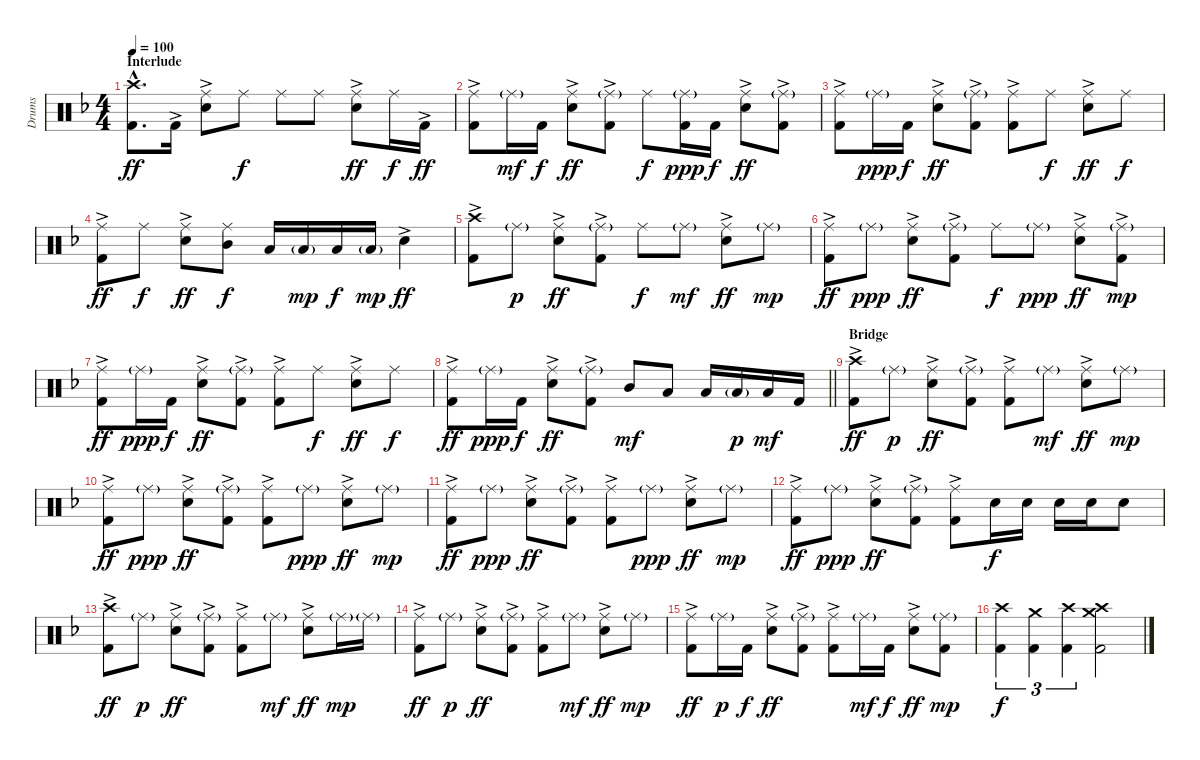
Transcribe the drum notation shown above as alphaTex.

\track ("Drums" "Drums") {instrument percussion}
\staff {score}
\articulation defaults
\ts (4 4)
\section ("" "Interlude")
\tempo 100
\clef neutral
\ks f
("Crash high (hit)"{hac} "Kick (hit) 2"{hac}).8{d dy ff} "Kick (hit) 2"{ac}.16 ("Ride (middle)" "Snare (hit) 2"{ac}).8 "Ride (middle)".8{dy f} "Ride (middle)".8 "Ride (middle)".8 ("Ride (middle)" "Snare (hit) 2"{ac}).8{dy ff} "Ride (middle)".16{dy f} "Kick (hit) 2"{ac}.16{dy ff} |
("Ride (middle)" "Kick (hit) 2"{ac}).8 "Ride (middle)"{g}.16{dy mf} "Kick (hit) 2".16{dy f} ("Ride (middle)" "Snare (hit) 2"{ac}).8{dy ff} ("Ride (middle)"{g} "Kick (hit) 2"{ac}).8 "Ride (middle)".8{dy f} ("Ride (middle)"{g} "Kick (hit) 2").16{dy ppp} "Kick (hit) 2".16{dy f} ("Ride (middle)" "Snare (hit) 2"{ac}).8{dy ff} ("Ride (middle)"{g} "Kick (hit) 2"{ac}).8 |
("Ride (middle)" "Kick (hit) 2"{ac}).8 "Ride (middle)"{g}.16{dy ppp} "Kick (hit) 2".16{dy f} ("Ride (middle)" "Snare (hit) 2"{ac}).8{dy ff} ("Ride (middle)"{g} "Kick (hit) 2"{ac}).8 ("Ride (middle)" "Kick (hit) 2"{ac}).8 "Ride (middle)".8{dy f} ("Ride (middle)" "Snare (hit) 2"{ac}).8{dy ff} "Ride (middle)".8{dy f} |
("Ride (middle)" "Kick (hit) 2"{ac}).8{dy ff} "Ride (middle)".8{dy f} ("Ride (middle)" "Snare (hit) 2"{ac}).8{dy ff} ("Ride (middle)" "Mid Tom (hit)").8{dy f} "Low Tom (hit)".16 "Low Tom (hit)"{g}.16{dy mp} "Low Tom (hit)".16{dy f} "Low Tom (hit)"{g}.16{dy mp} "Snare (hit) 2"{ac}.4{dy ff} |
("Crash high (hit)" "Kick (hit) 2"{ac}).8 "Ride (middle)"{g}.8{dy p} ("Ride (middle)" "Snare (hit) 2"{ac}).8{dy ff} ("Ride (middle)"{g} "Kick (hit) 2"{ac}).8 "Ride (middle)".8{dy f} "Ride (middle)"{g}.8{dy mf} ("Ride (middle)" "Snare (hit) 2"{ac}).8{dy ff} "Ride (middle)"{g}.8{dy mp} |
("Ride (middle)" "Kick (hit) 2"{ac}).8{dy ff} "Ride (middle)"{g}.8{dy ppp} ("Ride (middle)" "Snare (hit) 2"{ac}).8{dy ff} ("Ride (middle)"{g} "Kick (hit) 2"{ac}).8 "Ride (middle)".8{dy f} "Ride (middle)"{g}.8{dy ppp} ("Ride (middle)" "Snare (hit) 2"{ac}).8{dy ff} ("Ride (middle)"{g} "Kick (hit) 2"{ac}).8{dy mp} |
("Ride (middle)" "Kick (hit) 2"{ac}).8{dy ff} "Ride (middle)"{g}.16{dy ppp} "Kick (hit) 2".16{dy f} ("Ride (middle)" "Snare (hit) 2"{ac}).8{dy ff} ("Ride (middle)"{g} "Kick (hit) 2"{ac}).8 ("Ride (middle)" "Kick (hit) 2"{ac}).8 "Ride (middle)".8{dy f} ("Ride (middle)" "Snare (hit) 2"{ac}).8{dy ff} "Ride (middle)".8{dy f} |
\barLineRight lightlight
("Ride (middle)" "Kick (hit) 2"{ac}).8{dy ff} "Ride (middle)"{g}.16{dy ppp} "Kick (hit) 2".16{dy f} ("Ride (middle)" "Snare (hit) 2"{ac}).8{dy ff} ("Ride (middle)"{g} "Kick (hit) 2"{ac}).8 "Mid Tom (hit)".8{dy mf} "Low Tom (hit)".8 "Low Floor Tom (hit)".16 "Low Floor Tom (hit)"{g}.16{dy p} "Low Floor Tom (hit)".16{dy mf} "Kick (hit) 2".16 |
\section ("" "Bridge")
("Crash high (hit)" "Kick (hit) 2"{ac}).8{dy ff} "Ride (middle)"{g}.8{dy p} ("Ride (middle)" "Snare (hit) 2"{ac}).8{dy ff} ("Ride (middle)"{g} "Kick (hit) 2"{ac}).8 ("Ride (middle)" "Kick (hit) 2"{ac}).8 "Ride (middle)"{g}.8{dy mf} ("Ride (middle)" "Snare (hit) 2"{ac}).8{dy ff} "Ride (middle)"{g}.8{dy mp} |
("Ride (middle)" "Kick (hit) 2"{ac}).8{dy ff} "Ride (middle)"{g}.8{dy ppp} ("Ride (middle)" "Snare (hit) 2"{ac}).8{dy ff} ("Ride (middle)"{g} "Kick (hit) 2"{ac}).8 ("Ride (middle)" "Kick (hit) 2"{ac}).8 "Ride (middle)"{g}.8{dy ppp} ("Ride (middle)" "Snare (hit) 2"{ac}).8{dy ff} "Ride (middle)"{g}.8{dy mp} |
("Ride (middle)" "Kick (hit) 2"{ac}).8{dy ff} "Ride (middle)"{g}.8{dy ppp} ("Ride (middle)" "Snare (hit) 2"{ac}).8{dy ff} ("Ride (middle)"{g} "Kick (hit) 2"{ac}).8 ("Ride (middle)" "Kick (hit) 2"{ac}).8 "Ride (middle)"{g}.8{dy ppp} ("Ride (middle)" "Snare (hit) 2"{ac}).8{dy ff} "Ride (middle)"{g}.8{dy mp} |
("Ride (middle)" "Kick (hit) 2"{ac}).8{dy ff} "Ride (middle)"{g}.8{dy ppp} ("Ride (middle)" "Snare (hit) 2"{ac}).8{dy ff} ("Ride (middle)"{g} "Kick (hit) 2"{ac}).8 ("Ride (middle)" "Kick (hit) 2"{ac}).8 "Snare (hit) 2".16{dy f} "Snare (hit) 2".16 "Snare (hit) 2".16 "Snare (hit) 2".16 "Snare (hit) 2".8 |
("Crash high (hit)" "Kick (hit) 2"{ac}).8{dy ff} "Ride (middle)"{g}.8{dy p} ("Ride (middle)" "Snare (hit) 2"{ac}).8{dy ff} ("Ride (middle)"{g} "Kick (hit) 2"{ac}).8 ("Ride (middle)" "Kick (hit) 2"{ac}).8 "Ride (middle)"{g}.8{dy mf} ("Ride (middle)" "Snare (hit) 2"{ac}).8{dy ff} "Ride (middle)"{g}.16{dy mp} "Ride (middle)"{g}.16 |
("Ride (middle)" "Kick (hit) 2"{ac}).8{dy ff} "Ride (middle)"{g}.8{dy p} ("Ride (middle)" "Snare (hit) 2"{ac}).8{dy ff} ("Ride (middle)"{g} "Kick (hit) 2"{ac}).8 ("Ride (middle)" "Kick (hit) 2"{ac}).8 "Ride (middle)"{g}.8{dy mf} ("Ride (middle)" "Snare (hit) 2"{ac}).8{dy ff} "Ride (middle)"{g}.8{dy mp} |
("Ride (middle)" "Kick (hit) 2"{ac}).8{dy ff} "Ride (middle)"{g}.16{dy p} "Kick (hit) 2".16{dy f} ("Ride (middle)" "Snare (hit) 2"{ac}).8{dy ff} ("Ride (middle)"{g} "Kick (hit) 2"{ac}).8 ("Ride (middle)" "Kick (hit) 2"{ac}).8 "Ride (middle)"{g}.16{dy mf} "Kick (hit) 2".16{dy f} ("Ride (middle)" "Snare (hit) 2"{ac}).8{dy ff} ("Ride (middle)"{g} "Kick (hit) 2").8{dy mp} |
("Crash high (hit)" "Kick (hit) 2").4{tu (3 2) dy f} ("Crash medium (hit)" "Kick (hit) 2").4{tu (3 2)} ("Crash high (hit)" "Kick (hit) 2").4{tu (3 2)} ("Crash high (hit)" "Crash medium (hit)" "Kick (hit) 2").2
